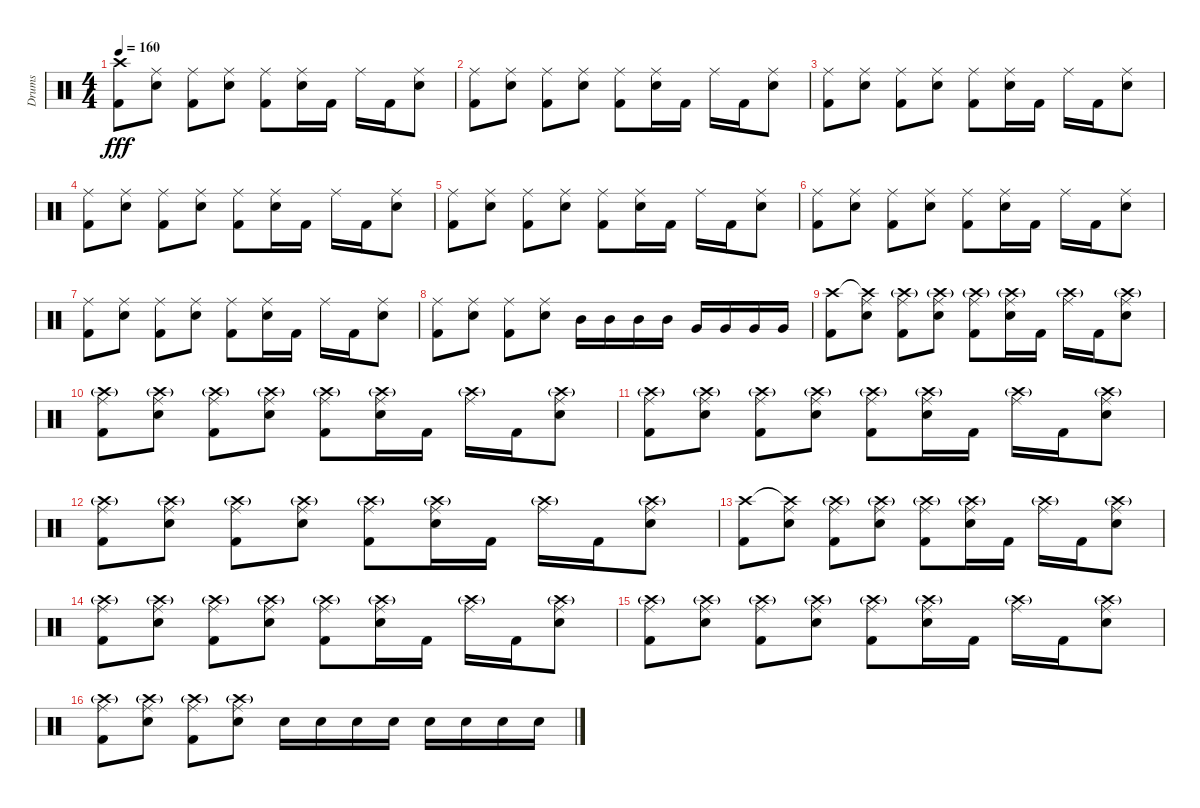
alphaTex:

\track ("Drums" "Drums") {instrument percussion}
\staff {score}
\articulation defaults
\ts (4 4)
\tempo 160
\clef neutral
\ks c
("Crash high (hit)" "Kick (hit) 2").8{dy fff} ("Ride (middle)" "Electric Snare (hit)").8 ("Ride (middle)" "Kick (hit) 2").8 ("Ride (middle)" "Electric Snare (hit)").8 ("Ride (middle)" "Kick (hit) 2").8 ("Ride (middle)" "Electric Snare (hit)").16 "Kick (hit) 2".16 "Ride (middle)".16 "Kick (hit) 2".16 ("Ride (middle)" "Electric Snare (hit)").8 |
("Ride (middle)" "Kick (hit) 2").8 ("Ride (middle)" "Electric Snare (hit)").8 ("Ride (middle)" "Kick (hit) 2").8 ("Ride (middle)" "Electric Snare (hit)").8 ("Ride (middle)" "Kick (hit) 2").8 ("Ride (middle)" "Electric Snare (hit)").16 "Kick (hit) 2".16 "Ride (middle)".16 "Kick (hit) 2".16 ("Ride (middle)" "Electric Snare (hit)").8 |
("Ride (middle)" "Kick (hit) 2").8 ("Ride (middle)" "Electric Snare (hit)").8 ("Ride (middle)" "Kick (hit) 2").8 ("Ride (middle)" "Electric Snare (hit)").8 ("Ride (middle)" "Kick (hit) 2").8 ("Ride (middle)" "Electric Snare (hit)").16 "Kick (hit) 2".16 "Ride (middle)".16 "Kick (hit) 2".16 ("Ride (middle)" "Electric Snare (hit)").8 |
("Ride (middle)" "Kick (hit) 2").8 ("Ride (middle)" "Electric Snare (hit)").8 ("Ride (middle)" "Kick (hit) 2").8 ("Ride (middle)" "Electric Snare (hit)").8 ("Ride (middle)" "Kick (hit) 2").8 ("Ride (middle)" "Electric Snare (hit)").16 "Kick (hit) 2".16 "Ride (middle)".16 "Kick (hit) 2".16 ("Ride (middle)" "Electric Snare (hit)").8 |
("Ride (middle)" "Kick (hit) 2").8 ("Ride (middle)" "Electric Snare (hit)").8 ("Ride (middle)" "Kick (hit) 2").8 ("Ride (middle)" "Electric Snare (hit)").8 ("Ride (middle)" "Kick (hit) 2").8 ("Ride (middle)" "Electric Snare (hit)").16 "Kick (hit) 2".16 "Ride (middle)".16 "Kick (hit) 2".16 ("Ride (middle)" "Electric Snare (hit)").8 |
("Ride (middle)" "Kick (hit) 2").8 ("Ride (middle)" "Electric Snare (hit)").8 ("Ride (middle)" "Kick (hit) 2").8 ("Ride (middle)" "Electric Snare (hit)").8 ("Ride (middle)" "Kick (hit) 2").8 ("Ride (middle)" "Electric Snare (hit)").16 "Kick (hit) 2".16 "Ride (middle)".16 "Kick (hit) 2".16 ("Ride (middle)" "Electric Snare (hit)").8 |
("Ride (middle)" "Kick (hit) 2").8 ("Ride (middle)" "Electric Snare (hit)").8 ("Ride (middle)" "Kick (hit) 2").8 ("Ride (middle)" "Electric Snare (hit)").8 ("Ride (middle)" "Kick (hit) 2").8 ("Ride (middle)" "Electric Snare (hit)").16 "Kick (hit) 2".16 "Ride (middle)".16 "Kick (hit) 2".16 ("Ride (middle)" "Electric Snare (hit)").8 |
("Ride (middle)" "Kick (hit) 2").8 ("Ride (middle)" "Electric Snare (hit)").8 ("Ride (middle)" "Kick (hit) 2").8 ("Ride (middle)" "Electric Snare (hit)").8 "Mid Tom (hit)".16 "Mid Tom (hit)".16 "Mid Tom (hit)".16 "Mid Tom (hit)".16 "Very Low Tom (hit)".16 "Very Low Tom (hit)".16 "Very Low Tom (hit)".16 "Very Low Tom (hit)".16 |
("Crash high (hit)" "Kick (hit) 2").8 ("Crash high (hit)"{t} "Ride (middle)" "Electric Snare (hit)").8 ("Crash high (hit)"{g} "Ride (middle)" "Kick (hit) 2").8 ("Crash high (hit)"{g} "Ride (middle)" "Electric Snare (hit)").8 ("Crash high (hit)"{g} "Ride (middle)" "Kick (hit) 2").8 ("Crash high (hit)"{g} "Ride (middle)" "Electric Snare (hit)").16 "Kick (hit) 2".16 ("Crash high (hit)"{g} "Ride (middle)").16 "Kick (hit) 2".16 ("Crash high (hit)"{g} "Ride (middle)" "Electric Snare (hit)").8 |
("Crash high (hit)"{g} "Ride (middle)" "Kick (hit) 2").8 ("Crash high (hit)"{g} "Ride (middle)" "Electric Snare (hit)").8 ("Crash high (hit)"{g} "Ride (middle)" "Kick (hit) 2").8 ("Crash high (hit)"{g} "Ride (middle)" "Electric Snare (hit)").8 ("Crash high (hit)"{g} "Ride (middle)" "Kick (hit) 2").8 ("Crash high (hit)"{g} "Ride (middle)" "Electric Snare (hit)").16 "Kick (hit) 2".16 ("Crash high (hit)"{g} "Ride (middle)").16 "Kick (hit) 2".16 ("Crash high (hit)"{g} "Ride (middle)" "Electric Snare (hit)").8 |
("Crash high (hit)"{g} "Ride (middle)" "Kick (hit) 2").8 ("Crash high (hit)"{g} "Ride (middle)" "Electric Snare (hit)").8 ("Crash high (hit)"{g} "Ride (middle)" "Kick (hit) 2").8 ("Crash high (hit)"{g} "Ride (middle)" "Electric Snare (hit)").8 ("Crash high (hit)"{g} "Ride (middle)" "Kick (hit) 2").8 ("Crash high (hit)"{g} "Ride (middle)" "Electric Snare (hit)").16 "Kick (hit) 2".16 ("Crash high (hit)"{g} "Ride (middle)").16 "Kick (hit) 2".16 ("Crash high (hit)"{g} "Ride (middle)" "Electric Snare (hit)").8 |
("Crash high (hit)"{g} "Ride (middle)" "Kick (hit) 2").8 ("Crash high (hit)"{g} "Ride (middle)" "Electric Snare (hit)").8 ("Crash high (hit)"{g} "Ride (middle)" "Kick (hit) 2").8 ("Crash high (hit)"{g} "Ride (middle)" "Electric Snare (hit)").8 ("Crash high (hit)"{g} "Ride (middle)" "Kick (hit) 2").8 ("Crash high (hit)"{g} "Ride (middle)" "Electric Snare (hit)").16 "Kick (hit) 2".16 ("Crash high (hit)"{g} "Ride (middle)").16 "Kick (hit) 2".16 ("Crash high (hit)"{g} "Ride (middle)" "Electric Snare (hit)").8 |
("Crash high (hit)" "Kick (hit) 2").8 ("Crash high (hit)"{t} "Ride (middle)" "Electric Snare (hit)").8 ("Crash high (hit)"{g} "Ride (middle)" "Kick (hit) 2").8 ("Crash high (hit)"{g} "Ride (middle)" "Electric Snare (hit)").8 ("Crash high (hit)"{g} "Ride (middle)" "Kick (hit) 2").8 ("Crash high (hit)"{g} "Ride (middle)" "Electric Snare (hit)").16 "Kick (hit) 2".16 ("Crash high (hit)"{g} "Ride (middle)").16 "Kick (hit) 2".16 ("Crash high (hit)"{g} "Ride (middle)" "Electric Snare (hit)").8 |
("Crash high (hit)"{g} "Ride (middle)" "Kick (hit) 2").8 ("Crash high (hit)"{g} "Ride (middle)" "Electric Snare (hit)").8 ("Crash high (hit)"{g} "Ride (middle)" "Kick (hit) 2").8 ("Crash high (hit)"{g} "Ride (middle)" "Electric Snare (hit)").8 ("Crash high (hit)"{g} "Ride (middle)" "Kick (hit) 2").8 ("Crash high (hit)"{g} "Ride (middle)" "Electric Snare (hit)").16 "Kick (hit) 2".16 ("Crash high (hit)"{g} "Ride (middle)").16 "Kick (hit) 2".16 ("Crash high (hit)"{g} "Ride (middle)" "Electric Snare (hit)").8 |
("Crash high (hit)"{g} "Ride (middle)" "Kick (hit) 2").8 ("Crash high (hit)"{g} "Ride (middle)" "Electric Snare (hit)").8 ("Crash high (hit)"{g} "Ride (middle)" "Kick (hit) 2").8 ("Crash high (hit)"{g} "Ride (middle)" "Electric Snare (hit)").8 ("Crash high (hit)"{g} "Ride (middle)" "Kick (hit) 2").8 ("Crash high (hit)"{g} "Ride (middle)" "Electric Snare (hit)").16 "Kick (hit) 2".16 ("Crash high (hit)"{g} "Ride (middle)").16 "Kick (hit) 2".16 ("Crash high (hit)"{g} "Ride (middle)" "Electric Snare (hit)").8 |
("Crash high (hit)"{g} "Ride (middle)" "Kick (hit) 2").8 ("Crash high (hit)"{g} "Ride (middle)" "Electric Snare (hit)").8 ("Crash high (hit)"{g} "Ride (middle)" "Kick (hit) 2").8 ("Crash high (hit)"{g} "Ride (middle)" "Electric Snare (hit)").8 "Electric Snare (hit)".16 "Electric Snare (hit)".16 "Electric Snare (hit)".16 "Electric Snare (hit)".16 "Electric Snare (hit)".16 "Electric Snare (hit)".16 "Electric Snare (hit)".16 "Electric Snare (hit)".16
